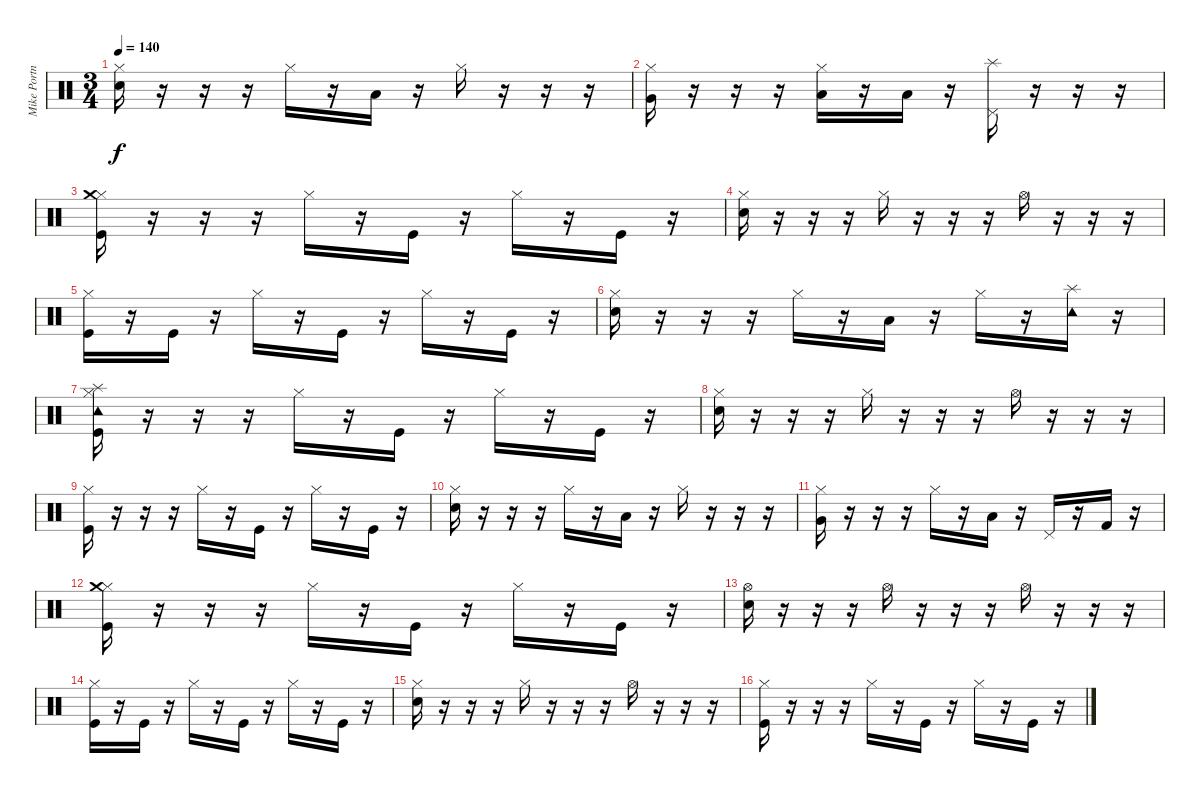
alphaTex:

\track ("Mike Portnoy" "Mike Portn") {instrument percussion}
\staff {score}
\articulation defaults
\ts (3 4)
\tempo 140
\clef neutral
\ks c
("Electric Snare (hit)" "Hi-Hat (closed)").16{dy f} r.16 r.16 r.16 "Hi-Hat (closed)".16 r.16 "Low Tom (hit)".16 r.16 "Hi-Hat (closed)".16 r.16 r.16 r.16 |
("Very Low Tom (hit)" "Hi-Hat (closed)").16 r.16 r.16 r.16 ("Low Floor Tom (hit)" "Hi-Hat (closed)").16 r.16 "Low Floor Tom (hit)".16 r.16 ("Splash (hit)" "Pedal Hi-Hat (hit)").16 r.16 r.16 r.16 |
("Kick (hit)" "Hi-Hat (closed)" "Crash medium (hit)").16 r.16 r.16 r.16 "Hi-Hat (closed)".16 r.16 "Kick (hit)".16 r.16 "Hi-Hat (closed)".16 r.16 "Kick (hit)".16 r.16 |
("Electric Snare (hit)" "Hi-Hat (closed)").16 r.16 r.16 r.16 "Hi-Hat (closed)".16 r.16 r.16 r.16 "Hi-Hat (open)".16 r.16 r.16 r.16 |
("Kick (hit)" "Hi-Hat (closed)").16 r.16 "Kick (hit)".16 r.16 "Hi-Hat (closed)".16 r.16 "Kick (hit)".16 r.16 "Hi-Hat (closed)".16 r.16 "Kick (hit)".16 r.16 |
("Electric Snare (hit)" "Hi-Hat (closed)").16 r.16 r.16 r.16 "Hi-Hat (closed)".16 r.16 "Low Tom (hit)".16 r.16 "Hi-Hat (closed)".16 r.16 ("Splash (hit)" "Tambourine (hit)").16 r.16 |
("Kick (hit)" "Tambourine (hit)" "Splash (hit)" "Hi-Hat (closed)").16 r.16 r.16 r.16 "Hi-Hat (closed)".16 r.16 "Kick (hit)".16 r.16 "Hi-Hat (closed)".16 r.16 "Kick (hit)".16 r.16 |
("Electric Snare (hit)" "Hi-Hat (closed)").16 r.16 r.16 r.16 "Hi-Hat (closed)".16 r.16 r.16 r.16 "Hi-Hat (open)".16 r.16 r.16 r.16 |
("Kick (hit)" "Hi-Hat (closed)").16 r.16 r.16 r.16 "Hi-Hat (closed)".16 r.16 "Kick (hit)".16 r.16 "Hi-Hat (closed)".16 r.16 "Kick (hit)".16 r.16 |
("Electric Snare (hit)" "Hi-Hat (closed)").16 r.16 r.16 r.16 "Hi-Hat (closed)".16 r.16 "Low Tom (hit)".16 r.16 "Hi-Hat (closed)".16 r.16 r.16 r.16 |
("Very Low Tom (hit)" "Hi-Hat (closed)").16 r.16 r.16 r.16 "Hi-Hat (closed)".16 r.16 "Low Floor Tom (hit)".16 r.16 "Pedal Hi-Hat (hit)".16 r.16 "Kick (hit) 2".16 r.16 |
("Kick (hit)" "Hi-Hat (closed)" "Crash medium (hit)").16 r.16 r.16 r.16 "Hi-Hat (closed)".16 r.16 "Kick (hit)".16 r.16 "Hi-Hat (closed)".16 r.16 "Kick (hit)".16 r.16 |
("Electric Snare (hit)" "Hi-Hat (open)").16 r.16 r.16 r.16 "Hi-Hat (open)".16 r.16 r.16 r.16 "Hi-Hat (open)".16 r.16 r.16 r.16 |
("Kick (hit)" "Hi-Hat (closed)").16 r.16 "Kick (hit)".16 r.16 "Hi-Hat (closed)".16 r.16 "Kick (hit)".16 r.16 "Hi-Hat (closed)".16 r.16 "Kick (hit)".16 r.16 |
("Electric Snare (hit)" "Hi-Hat (closed)").16 r.16 r.16 r.16 "Hi-Hat (closed)".16 r.16 r.16 r.16 "Hi-Hat (open)".16 r.16 r.16 r.16 |
("Kick (hit)" "Hi-Hat (closed)").16 r.16 r.16 r.16 "Hi-Hat (closed)".16 r.16 "Kick (hit)".16 r.16 "Hi-Hat (closed)".16 r.16 "Kick (hit)".16 r.16
